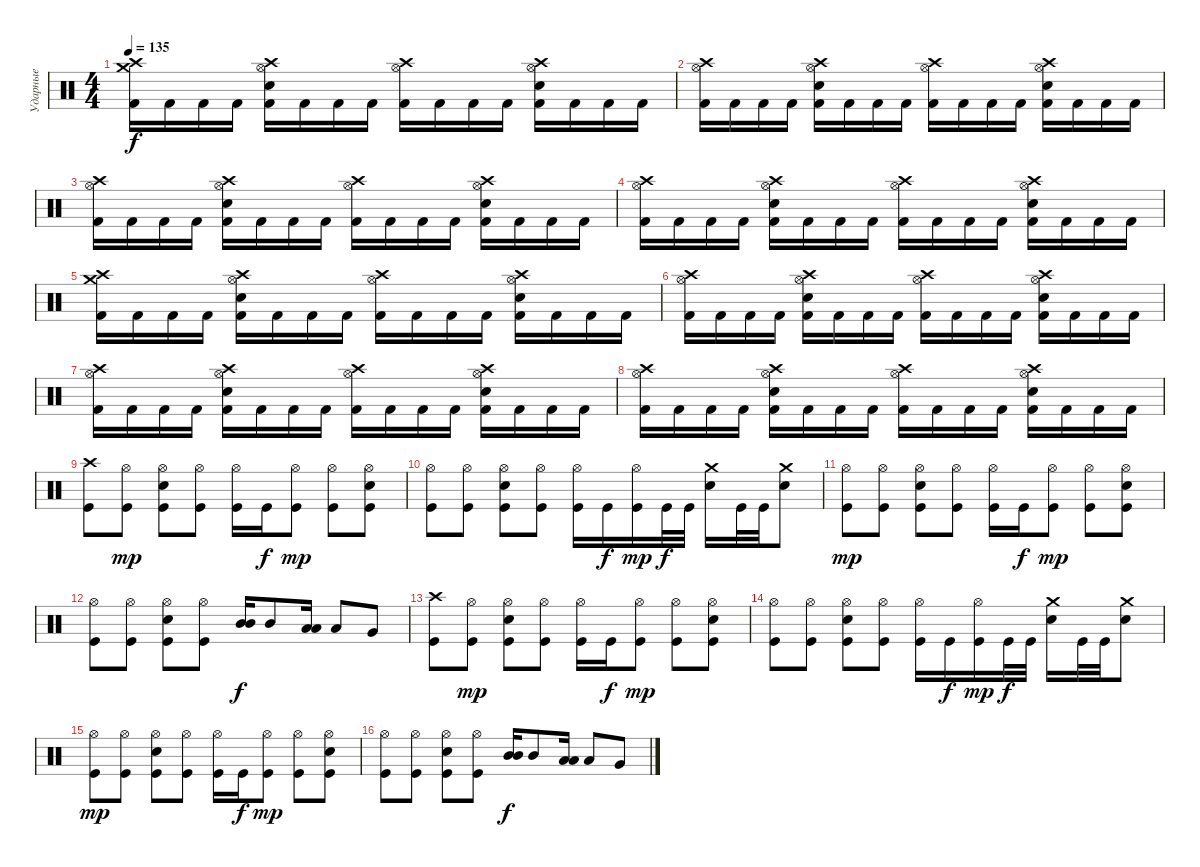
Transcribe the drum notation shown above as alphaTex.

\track ("Ударные" "Ударные") {instrument percussion}
\staff {score}
\articulation defaults
\ts (4 4)
\tempo 135
\clef neutral
\ks c
("Crash medium (hit)" "Crash high (hit)" "Kick (hit) 2").16{dy f} "Kick (hit) 2".16 "Kick (hit) 2".16 "Kick (hit) 2".16 ("Crash high (hit)" "Hi-Hat (open)" "Electric Snare (hit)" "Kick (hit) 2").16 "Kick (hit) 2".16 "Kick (hit) 2".16 "Kick (hit) 2".16 ("Crash high (hit)" "Hi-Hat (open)" "Kick (hit) 2").16 "Kick (hit) 2".16 "Kick (hit) 2".16 "Kick (hit) 2".16 ("Crash high (hit)" "Hi-Hat (open)" "Electric Snare (hit)" "Kick (hit) 2").16 "Kick (hit) 2".16 "Kick (hit) 2".16 "Kick (hit) 2".16 |
("Crash high (hit)" "Hi-Hat (open)" "Kick (hit) 2").16 "Kick (hit) 2".16 "Kick (hit) 2".16 "Kick (hit) 2".16 ("Crash high (hit)" "Hi-Hat (open)" "Electric Snare (hit)" "Kick (hit) 2").16 "Kick (hit) 2".16 "Kick (hit) 2".16 "Kick (hit) 2".16 ("Crash high (hit)" "Hi-Hat (open)" "Kick (hit) 2").16 "Kick (hit) 2".16 "Kick (hit) 2".16 "Kick (hit) 2".16 ("Crash high (hit)" "Hi-Hat (open)" "Electric Snare (hit)" "Kick (hit) 2").16 "Kick (hit) 2".16 "Kick (hit) 2".16 "Kick (hit) 2".16 |
("Crash high (hit)" "Hi-Hat (open)" "Kick (hit) 2").16 "Kick (hit) 2".16 "Kick (hit) 2".16 "Kick (hit) 2".16 ("Crash high (hit)" "Hi-Hat (open)" "Electric Snare (hit)" "Kick (hit) 2").16 "Kick (hit) 2".16 "Kick (hit) 2".16 "Kick (hit) 2".16 ("Crash high (hit)" "Hi-Hat (open)" "Kick (hit) 2").16 "Kick (hit) 2".16 "Kick (hit) 2".16 "Kick (hit) 2".16 ("Crash high (hit)" "Hi-Hat (open)" "Electric Snare (hit)" "Kick (hit) 2").16 "Kick (hit) 2".16 "Kick (hit) 2".16 "Kick (hit) 2".16 |
("Crash high (hit)" "Hi-Hat (open)" "Kick (hit) 2").16 "Kick (hit) 2".16 "Kick (hit) 2".16 "Kick (hit) 2".16 ("Crash high (hit)" "Hi-Hat (open)" "Electric Snare (hit)" "Kick (hit) 2").16 "Kick (hit) 2".16 "Kick (hit) 2".16 "Kick (hit) 2".16 ("Crash high (hit)" "Hi-Hat (open)" "Kick (hit) 2").16 "Kick (hit) 2".16 "Kick (hit) 2".16 "Kick (hit) 2".16 ("Crash high (hit)" "Hi-Hat (open)" "Electric Snare (hit)" "Kick (hit) 2").16 "Kick (hit) 2".16 "Kick (hit) 2".16 "Kick (hit) 2".16 |
("Crash medium (hit)" "Crash high (hit)" "Kick (hit) 2").16 "Kick (hit) 2".16 "Kick (hit) 2".16 "Kick (hit) 2".16 ("Crash high (hit)" "Hi-Hat (open)" "Electric Snare (hit)" "Kick (hit) 2").16 "Kick (hit) 2".16 "Kick (hit) 2".16 "Kick (hit) 2".16 ("Crash high (hit)" "Hi-Hat (open)" "Kick (hit) 2").16 "Kick (hit) 2".16 "Kick (hit) 2".16 "Kick (hit) 2".16 ("Crash high (hit)" "Hi-Hat (open)" "Electric Snare (hit)" "Kick (hit) 2").16 "Kick (hit) 2".16 "Kick (hit) 2".16 "Kick (hit) 2".16 |
("Crash high (hit)" "Hi-Hat (open)" "Kick (hit) 2").16 "Kick (hit) 2".16 "Kick (hit) 2".16 "Kick (hit) 2".16 ("Crash high (hit)" "Hi-Hat (open)" "Electric Snare (hit)" "Kick (hit) 2").16 "Kick (hit) 2".16 "Kick (hit) 2".16 "Kick (hit) 2".16 ("Crash high (hit)" "Hi-Hat (open)" "Kick (hit) 2").16 "Kick (hit) 2".16 "Kick (hit) 2".16 "Kick (hit) 2".16 ("Crash high (hit)" "Hi-Hat (open)" "Electric Snare (hit)" "Kick (hit) 2").16 "Kick (hit) 2".16 "Kick (hit) 2".16 "Kick (hit) 2".16 |
("Crash high (hit)" "Hi-Hat (open)" "Kick (hit) 2").16 "Kick (hit) 2".16 "Kick (hit) 2".16 "Kick (hit) 2".16 ("Crash high (hit)" "Hi-Hat (open)" "Electric Snare (hit)" "Kick (hit) 2").16 "Kick (hit) 2".16 "Kick (hit) 2".16 "Kick (hit) 2".16 ("Crash high (hit)" "Hi-Hat (open)" "Kick (hit) 2").16 "Kick (hit) 2".16 "Kick (hit) 2".16 "Kick (hit) 2".16 ("Crash high (hit)" "Hi-Hat (open)" "Electric Snare (hit)" "Kick (hit) 2").16 "Kick (hit) 2".16 "Kick (hit) 2".16 "Kick (hit) 2".16 |
("Crash high (hit)" "Hi-Hat (open)" "Kick (hit) 2").16 "Kick (hit) 2".16 "Kick (hit) 2".16 "Kick (hit) 2".16 ("Crash high (hit)" "Hi-Hat (open)" "Electric Snare (hit)" "Kick (hit) 2").16 "Kick (hit) 2".16 "Kick (hit) 2".16 "Kick (hit) 2".16 ("Crash high (hit)" "Hi-Hat (open)" "Kick (hit) 2").16 "Kick (hit) 2".16 "Kick (hit) 2".16 "Kick (hit) 2".16 ("Crash high (hit)" "Hi-Hat (open)" "Electric Snare (hit)" "Kick (hit) 2").16 "Kick (hit) 2".16 "Kick (hit) 2".16 "Kick (hit) 2".16 |
("Crash high (hit)" "Kick (hit)").8 ("Hi-Hat (open)" "Kick (hit)").8{dy mp} ("Hi-Hat (open)" "Electric Snare (hit)" "Kick (hit)").8 ("Hi-Hat (open)" "Kick (hit)").8 ("Hi-Hat (open)" "Kick (hit)").16 "Kick (hit)".16{dy f} ("Hi-Hat (open)" "Kick (hit)").8{dy mp} ("Hi-Hat (open)" "Kick (hit)").8 ("Hi-Hat (open)" "Electric Snare (hit)" "Kick (hit)").8 |
("Hi-Hat (open)" "Kick (hit)").8 ("Hi-Hat (open)" "Kick (hit)").8 ("Hi-Hat (open)" "Electric Snare (hit)" "Kick (hit)").8 ("Hi-Hat (open)" "Kick (hit)").8 ("Hi-Hat (open)" "Kick (hit)").16 "Kick (hit)".16{dy f} ("Hi-Hat (open)" "Kick (hit)").16{dy mp} "Kick (hit)".32{dy f} "Kick (hit)".32 ("Crash medium (hit)" "Electric Snare (hit)").16 "Kick (hit)".32 "Kick (hit)".32 ("Crash medium (hit)" "Electric Snare (hit)").8 |
("Hi-Hat (open)" "Kick (hit)").8{dy mp} ("Hi-Hat (open)" "Kick (hit)").8 ("Hi-Hat (open)" "Electric Snare (hit)" "Kick (hit)").8 ("Hi-Hat (open)" "Kick (hit)").8 ("Hi-Hat (open)" "Kick (hit)").16 "Kick (hit)".16{dy f} ("Hi-Hat (open)" "Kick (hit)").8{dy mp} ("Hi-Hat (open)" "Kick (hit)").8 ("Hi-Hat (open)" "Electric Snare (hit)" "Kick (hit)").8 |
("Hi-Hat (open)" "Kick (hit)").8 ("Hi-Hat (open)" "Kick (hit)").8 ("Hi-Hat (open)" "Electric Snare (hit)" "Kick (hit)").8 ("Hi-Hat (open)" "Kick (hit)").8 ("Mid Tom (hit)" "Mid Tom (hit)").16{bu 60 dy f} "Mid Tom (hit)".8 ("Low Tom (hit)" "Low Tom (hit)").16{bu 60} "Low Tom (hit)".8 "Very Low Tom (hit)".8 |
("Crash high (hit)" "Kick (hit)").8 ("Hi-Hat (open)" "Kick (hit)").8{dy mp} ("Hi-Hat (open)" "Electric Snare (hit)" "Kick (hit)").8 ("Hi-Hat (open)" "Kick (hit)").8 ("Hi-Hat (open)" "Kick (hit)").16 "Kick (hit)".16{dy f} ("Hi-Hat (open)" "Kick (hit)").8{dy mp} ("Hi-Hat (open)" "Kick (hit)").8 ("Hi-Hat (open)" "Electric Snare (hit)" "Kick (hit)").8 |
("Hi-Hat (open)" "Kick (hit)").8 ("Hi-Hat (open)" "Kick (hit)").8 ("Hi-Hat (open)" "Electric Snare (hit)" "Kick (hit)").8 ("Hi-Hat (open)" "Kick (hit)").8 ("Hi-Hat (open)" "Kick (hit)").16 "Kick (hit)".16{dy f} ("Hi-Hat (open)" "Kick (hit)").16{dy mp} "Kick (hit)".32{dy f} "Kick (hit)".32 ("Crash medium (hit)" "Electric Snare (hit)").16 "Kick (hit)".32 "Kick (hit)".32 ("Crash medium (hit)" "Electric Snare (hit)").8 |
("Hi-Hat (open)" "Kick (hit)").8{dy mp} ("Hi-Hat (open)" "Kick (hit)").8 ("Hi-Hat (open)" "Electric Snare (hit)" "Kick (hit)").8 ("Hi-Hat (open)" "Kick (hit)").8 ("Hi-Hat (open)" "Kick (hit)").16 "Kick (hit)".16{dy f} ("Hi-Hat (open)" "Kick (hit)").8{dy mp} ("Hi-Hat (open)" "Kick (hit)").8 ("Hi-Hat (open)" "Electric Snare (hit)" "Kick (hit)").8 |
("Hi-Hat (open)" "Kick (hit)").8 ("Hi-Hat (open)" "Kick (hit)").8 ("Hi-Hat (open)" "Electric Snare (hit)" "Kick (hit)").8 ("Hi-Hat (open)" "Kick (hit)").8 ("Mid Tom (hit)" "Mid Tom (hit)").16{bu 60 dy f} "Mid Tom (hit)".8 ("Low Tom (hit)" "Low Tom (hit)").16{bu 60} "Low Tom (hit)".8 "Very Low Tom (hit)".8
